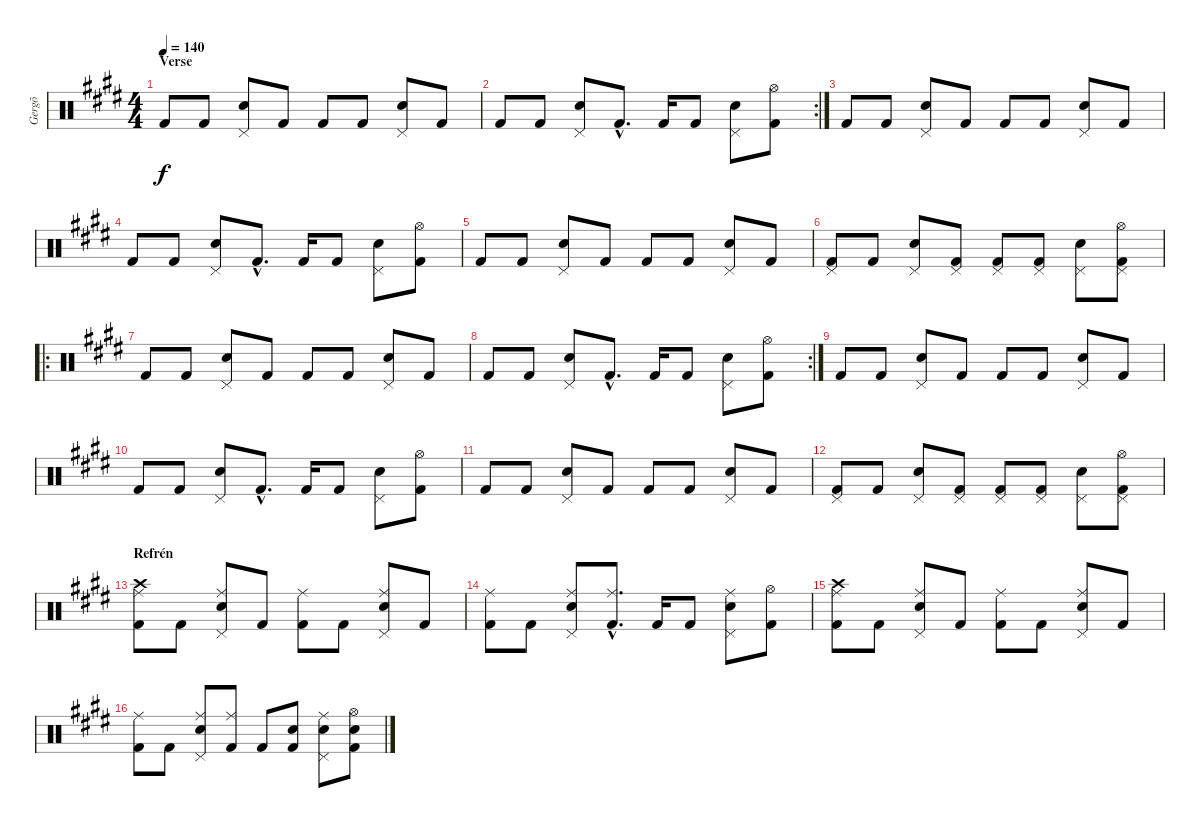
\track ("Gergõ" "Gergõ") {instrument percussion}
\staff {score}
\articulation defaults
\ts (4 4)
\section ("" "Verse")
\tempo 140
\clef neutral
\ks e "Kick (hit) 2".8{dy f} "Kick (hit) 2".8
("Pedal Hi-Hat (hit)" "Electric Snare (hit)").8 "Kick (hit) 2".8 "Kick (hit) 2".8 "Kick (hit) 2".8 ("Pedal Hi-Hat (hit)" "Electric Snare (hit)").8 "Kick (hit) 2".8 |
\rc 2 "Kick (hit) 2".8 "Kick (hit) 2".8
("Pedal Hi-Hat (hit)" "Electric Snare (hit)").8 "Kick (hit) 2"{hac}.8{d} "Kick (hit) 2".16 "Kick (hit) 2".8 ("Pedal Hi-Hat (hit)" "Electric Snare (hit)").8 ("Hi-Hat (open)" "Kick (hit) 2").8 |
"Kick (hit) 2".8 "Kick (hit) 2".8 ("Pedal Hi-Hat (hit)" "Electric Snare (hit)").8 "Kick (hit) 2".8 "Kick (hit) 2".8 "Kick (hit) 2".8 ("Pedal Hi-Hat (hit)" "Electric Snare (hit)").8 "Kick (hit) 2".8 |
"Kick (hit) 2".8 "Kick (hit) 2".8 ("Pedal Hi-Hat (hit)" "Electric Snare (hit)").8 "Kick (hit) 2"{hac}.8{d} "Kick (hit) 2".16 "Kick (hit) 2".8 ("Pedal Hi-Hat (hit)" "Electric Snare (hit)").8 ("Hi-Hat (open)" "Kick (hit) 2").8 |
"Kick (hit) 2".8 "Kick (hit) 2".8 ("Pedal Hi-Hat (hit)" "Electric Snare (hit)").8 "Kick (hit) 2".8 "Kick (hit) 2".8 "Kick (hit) 2".8 ("Pedal Hi-Hat (hit)" "Electric Snare (hit)").8 "Kick (hit) 2".8 |
("Pedal Hi-Hat (hit)" "Kick (hit) 2").8 "Kick (hit) 2".8 ("Pedal Hi-Hat (hit)" "Electric Snare (hit)").8 ("Pedal Hi-Hat (hit)" "Kick (hit) 2").8 ("Pedal Hi-Hat (hit)" "Kick (hit) 2").8 ("Pedal Hi-Hat (hit)" "Kick (hit) 2").8 ("Pedal Hi-Hat (hit)" "Electric Snare (hit)").8 ("Hi-Hat (open)" "Pedal Hi-Hat (hit)" "Kick (hit) 2").8 |
\ro "Kick (hit) 2".8 "Kick (hit) 2".8
("Pedal Hi-Hat (hit)" "Electric Snare (hit)").8 "Kick (hit) 2".8 "Kick (hit) 2".8 "Kick (hit) 2".8 ("Pedal Hi-Hat (hit)" "Electric Snare (hit)").8 "Kick (hit) 2".8 |
\rc 2 "Kick (hit) 2".8 "Kick (hit) 2".8
("Pedal Hi-Hat (hit)" "Electric Snare (hit)").8 "Kick (hit) 2"{hac}.8{d} "Kick (hit) 2".16 "Kick (hit) 2".8 ("Pedal Hi-Hat (hit)" "Electric Snare (hit)").8 ("Hi-Hat (open)" "Kick (hit) 2").8 |
"Kick (hit) 2".8 "Kick (hit) 2".8 ("Pedal Hi-Hat (hit)" "Electric Snare (hit)").8 "Kick (hit) 2".8 "Kick (hit) 2".8 "Kick (hit) 2".8 ("Pedal Hi-Hat (hit)" "Electric Snare (hit)").8 "Kick (hit) 2".8 |
"Kick (hit) 2".8 "Kick (hit) 2".8 ("Pedal Hi-Hat (hit)" "Electric Snare (hit)").8 "Kick (hit) 2"{hac}.8{d} "Kick (hit) 2".16 "Kick (hit) 2".8 ("Pedal Hi-Hat (hit)" "Electric Snare (hit)").8 ("Hi-Hat (open)" "Kick (hit) 2").8 |
"Kick (hit) 2".8 "Kick (hit) 2".8 ("Pedal Hi-Hat (hit)" "Electric Snare (hit)").8 "Kick (hit) 2".8 "Kick (hit) 2".8 "Kick (hit) 2".8 ("Pedal Hi-Hat (hit)" "Electric Snare (hit)").8 "Kick (hit) 2".8 |
("Pedal Hi-Hat (hit)" "Kick (hit) 2").8 "Kick (hit) 2".8 ("Pedal Hi-Hat (hit)" "Electric Snare (hit)").8 ("Pedal Hi-Hat (hit)" "Kick (hit) 2").8 ("Pedal Hi-Hat (hit)" "Kick (hit) 2").8 ("Pedal Hi-Hat (hit)" "Kick (hit) 2").8 ("Pedal Hi-Hat (hit)" "Electric Snare (hit)").8 ("Hi-Hat (open)" "Pedal Hi-Hat (hit)" "Kick (hit) 2").8 |
\section ("" "Refrén")
("Crash high (hit)" "Ride (middle)" "Kick (hit) 2").8 "Kick (hit) 2".8 ("Ride (middle)" "Pedal Hi-Hat (hit)" "Electric Snare (hit)").8 "Kick (hit) 2".8 ("Ride (middle)" "Kick (hit) 2").8 "Kick (hit) 2".8 ("Ride (middle)" "Pedal Hi-Hat (hit)" "Electric Snare (hit)").8 "Kick (hit) 2".8 |
("Ride (middle)" "Kick (hit) 2").8 "Kick (hit) 2".8 ("Ride (middle)" "Pedal Hi-Hat (hit)" "Electric Snare (hit)").8 ("Ride (middle)"{hac} "Kick (hit) 2"{hac}).8{d} "Kick (hit) 2".16 "Kick (hit) 2".8 ("Ride (middle)" "Pedal Hi-Hat (hit)" "Electric Snare (hit)").8 ("Hi-Hat (open)" "Kick (hit) 2").8 |
("Ride (middle)" "Crash high (hit)" "Kick (hit) 2").8 "Kick (hit) 2".8 ("Ride (middle)" "Pedal Hi-Hat (hit)" "Electric Snare (hit)").8 "Kick (hit) 2".8 ("Ride (middle)" "Kick (hit) 2").8 "Kick (hit) 2".8 ("Ride (middle)" "Pedal Hi-Hat (hit)" "Electric Snare (hit)").8 "Kick (hit) 2".8 |
("Ride (middle)" "Kick (hit) 2").8 "Kick (hit) 2".8 ("Ride (middle)" "Pedal Hi-Hat (hit)" "Electric Snare (hit)").8 ("Ride (middle)" "Kick (hit) 2").8 "Kick (hit) 2".8 ("Electric Snare (hit)" "Kick (hit) 2").8 ("Ride (middle)" "Pedal Hi-Hat (hit)" "Electric Snare (hit)").8 ("Hi-Hat (open)" "Electric Snare (hit)" "Kick (hit) 2").8
